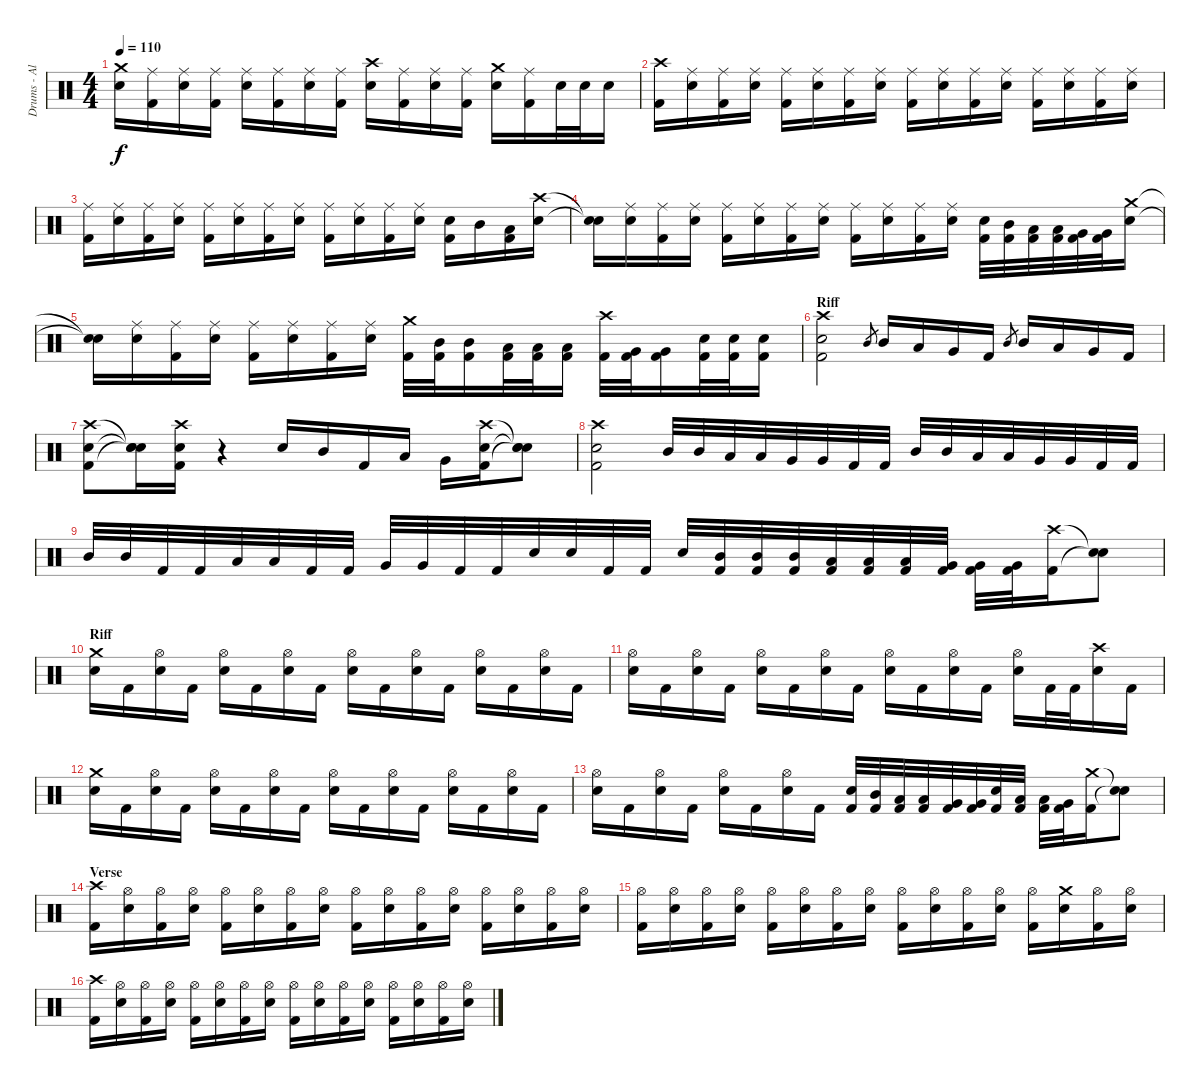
\track ("Drums - Albin" "Drums - Al") {instrument percussion}
\staff {score}
\articulation defaults
\ts (4 4)
\tempo 110
\clef neutral
\ks c
("Crash medium (hit)"{t} "Snare (hit)"{t}).16{dy f} ("Ride (middle)" "Kick (hit) 2").16 ("Ride (middle)" "Snare (hit) 2").16 ("Ride (middle)" "Kick (hit) 2").16 ("Ride (middle)" "Snare (hit) 2").16 ("Ride (middle)" "Kick (hit) 2").16 ("Ride (middle)" "Snare (hit) 2").16 ("Ride (middle)" "Kick (hit) 2").16 ("Crash high (hit)" "Snare (hit) 2").16 ("Ride (middle)" "Kick (hit) 2").16 ("Ride (middle)" "Snare (hit) 2").16 ("Ride (middle)" "Kick (hit) 2").16 ("Crash medium (hit)" "Snare (hit) 2").16 ("Ride (middle)" "Kick (hit) 2").16 "Snare (hit) 2".32 "Snare (hit) 2".32 "Snare (hit) 2".16 |
("Crash high (hit)" "Kick (hit) 2").16 ("Ride (middle)" "Snare (hit) 2").16 ("Ride (middle)" "Kick (hit) 2").16 ("Ride (middle)" "Snare (hit) 2").16 ("Ride (middle)" "Kick (hit) 2").16 ("Ride (middle)" "Snare (hit) 2").16 ("Ride (middle)" "Kick (hit) 2").16 ("Ride (middle)" "Snare (hit) 2").16 ("Ride (middle)" "Kick (hit) 2").16 ("Ride (middle)" "Snare (hit) 2").16 ("Ride (middle)" "Kick (hit) 2").16 ("Ride (middle)" "Snare (hit) 2").16 ("Ride (middle)" "Kick (hit) 2").16 ("Ride (middle)" "Snare (hit) 2").16 ("Ride (middle)" "Kick (hit) 2").16 ("Ride (middle)" "Snare (hit) 2").16 |
("Ride (middle)" "Kick (hit) 2").16 ("Ride (middle)" "Snare (hit) 2").16 ("Ride (middle)" "Kick (hit) 2").16 ("Ride (middle)" "Snare (hit) 2").16 ("Ride (middle)" "Kick (hit) 2").16 ("Ride (middle)" "Snare (hit) 2").16 ("Ride (middle)" "Kick (hit) 2").16 ("Ride (middle)" "Snare (hit) 2").16 ("Ride (middle)" "Kick (hit) 2").16 ("Ride (middle)" "Snare (hit) 2").16 ("Ride (middle)" "Kick (hit) 2").16 ("Ride (middle)" "Snare (hit) 2").16 ("Snare (hit) 2" "Kick (hit) 2").16 "Mid Tom (hit)".16 ("Low Tom (hit)" "Kick (hit) 2").16 ("Crash high (hit)" "Snare (hit) 2").16 |
("Snare (hit)"{t} "Snare (hit)"{t}).16 ("Ride (middle)" "Snare (hit) 2").16 ("Ride (middle)" "Kick (hit) 2").16 ("Ride (middle)" "Snare (hit) 2").16 ("Ride (middle)" "Kick (hit) 2").16 ("Ride (middle)" "Snare (hit) 2").16 ("Ride (middle)" "Kick (hit) 2").16 ("Ride (middle)" "Snare (hit) 2").16 ("Ride (middle)" "Kick (hit) 2").16 ("Ride (middle)" "Snare (hit) 2").16 ("Ride (middle)" "Kick (hit) 2").16 ("Ride (middle)" "Snare (hit) 2").16 ("Snare (hit) 2" "Kick (hit) 2").32 ("Mid Tom (hit)" "Kick (hit) 2").32 ("Low Tom (hit)" "Kick (hit) 2").32 ("Low Tom (hit)" "Kick (hit) 2").32 ("Very Low Tom (hit)" "Kick (hit) 2").32 ("Very Low Tom (hit)" "Kick (hit) 2").32 ("Crash medium (hit)" "Snare (hit) 2").16 |
("Snare (hit)"{t} "Snare (hit)"{t}).16 ("Ride (middle)" "Snare (hit) 2").16 ("Ride (middle)" "Kick (hit) 2").16 ("Ride (middle)" "Snare (hit) 2").16 ("Ride (middle)" "Kick (hit) 2").16 ("Ride (middle)" "Snare (hit) 2").16 ("Ride (middle)" "Kick (hit) 2").16 ("Ride (middle)" "Snare (hit) 2").16 ("Crash medium (hit)" "Kick (hit) 2").32 ("Mid Tom (hit)" "Kick (hit) 2").32 ("Mid Tom (hit)" "Kick (hit) 2").16 ("Low Tom (hit)" "Kick (hit) 2").32 ("Low Tom (hit)" "Kick (hit) 2").32 ("Low Tom (hit)" "Kick (hit) 2").16 ("Crash high (hit)" "Kick (hit) 2").32 ("Very Low Tom (hit)" "Kick (hit) 2").32 ("Very Low Tom (hit)" "Kick (hit) 2").16 ("Snare (hit) 2" "Kick (hit) 2").32 ("Snare (hit) 2" "Kick (hit) 2").32 ("Snare (hit) 2" "Kick (hit) 2").16 |
\section ("" "Riff")
("Crash high (hit)" "Snare (hit) 2" "Kick (hit) 2").2 "Mid Tom (hit)".8{gr} "Mid Tom (hit)".16 "Low Tom (hit)".16 "Very Low Tom (hit)".16 "Kick (hit) 2".16 "Mid Tom (hit)".8{gr} "Mid Tom (hit)".16 "Low Tom (hit)".16 "Very Low Tom (hit)".16 "Kick (hit) 2".16 |
("Crash high (hit)" "Snare (hit) 2" "Kick (hit) 2").8 ("Snare (hit)"{t} "Snare (hit)"{t} "Snare (hit)"{t}).16 ("Crash high (hit)" "Snare (hit) 2" "Kick (hit) 2").16 r.4 "Snare (hit) 2".16 "Mid Tom (hit)".16 "Kick (hit) 2".16 "Low Tom (hit)".16 "Very Low Tom (hit)".16 ("Crash high (hit)" "Snare (hit) 2" "Kick (hit) 2").16 ("Snare (hit)"{t} "Snare (hit)"{t} "Snare (hit)"{t}).8 |
("Crash high (hit)" "Snare (hit) 2" "Kick (hit) 2").2 "Mid Tom (hit)".32 "Mid Tom (hit)".32 "Low Tom (hit)".32 "Low Tom (hit)".32 "Very Low Tom (hit)".32 "Very Low Tom (hit)".32 "Kick (hit) 2".32 "Kick (hit) 2".32 "Mid Tom (hit)".32 "Mid Tom (hit)".32 "Low Tom (hit)".32 "Low Tom (hit)".32 "Very Low Tom (hit)".32 "Very Low Tom (hit)".32 "Kick (hit) 2".32 "Kick (hit) 2".32 |
"Mid Tom (hit)".32 "Mid Tom (hit)".32 "Kick (hit) 2".32 "Kick (hit) 2".32 "Low Tom (hit)".32 "Low Tom (hit)".32 "Kick (hit) 2".32 "Kick (hit) 2".32 "Very Low Tom (hit)".32 "Very Low Tom (hit)".32 "Kick (hit) 2".32 "Kick (hit) 2".32 "Snare (hit) 2".32 "Snare (hit) 2".32 "Kick (hit) 2".32 "Kick (hit) 2".32 "Snare (hit) 2".32 ("Mid Tom (hit)" "Kick (hit) 2").32 ("Mid Tom (hit)" "Kick (hit) 2").32 ("Mid Tom (hit)" "Kick (hit) 2").32 ("Low Tom (hit)" "Kick (hit) 2").32 ("Low Tom (hit)" "Kick (hit) 2").32 ("Low Tom (hit)" "Kick (hit) 2").32 ("Very Low Tom (hit)" "Kick (hit) 2").32 ("Very Low Tom (hit)" "Kick (hit) 2").32 ("Very Low Tom (hit)" "Kick (hit) 2").32 ("Crash high (hit)" "Kick (hit) 2").16 ("Snare (hit)"{t} "Snare (hit)"{t}).8 |
\section ("" "Riff")
("Crash medium (hit)" "Snare (hit) 2").16 "Kick (hit) 2".16 ("Hi-Hat (open)" "Snare (hit) 2").16 "Kick (hit) 2".16 ("Hi-Hat (open)" "Snare (hit) 2").16 "Kick (hit) 2".16 ("Hi-Hat (open)" "Snare (hit) 2").16 "Kick (hit) 2".16 ("Hi-Hat (open)" "Snare (hit) 2").16 "Kick (hit) 2".16 ("Hi-Hat (open)" "Snare (hit) 2").16 "Kick (hit) 2".16 ("Hi-Hat (open)" "Snare (hit) 2").16 "Kick (hit) 2".16 ("Hi-Hat (open)" "Snare (hit) 2").16 "Kick (hit) 2".16 |
("Hi-Hat (open)" "Snare (hit) 2").16 "Kick (hit) 2".16 ("Hi-Hat (open)" "Snare (hit) 2").16 "Kick (hit) 2".16 ("Hi-Hat (open)" "Snare (hit) 2").16 "Kick (hit) 2".16 ("Hi-Hat (open)" "Snare (hit) 2").16 "Kick (hit) 2".16 ("Hi-Hat (open)" "Snare (hit) 2").16 "Kick (hit) 2".16 ("Hi-Hat (open)" "Snare (hit) 2").16 "Kick (hit) 2".16 ("Hi-Hat (open)" "Snare (hit) 2").16 "Kick (hit) 2".32 "Kick (hit) 2".32 ("Crash high (hit)" "Snare (hit) 2").16 "Kick (hit) 2".16 |
("Crash medium (hit)" "Snare (hit) 2").16 "Kick (hit) 2".16 ("Hi-Hat (open)" "Snare (hit) 2").16 "Kick (hit) 2".16 ("Hi-Hat (open)" "Snare (hit) 2").16 "Kick (hit) 2".16 ("Hi-Hat (open)" "Snare (hit) 2").16 "Kick (hit) 2".16 ("Hi-Hat (open)" "Snare (hit) 2").16 "Kick (hit) 2".16 ("Hi-Hat (open)" "Snare (hit) 2").16 "Kick (hit) 2".16 ("Hi-Hat (open)" "Snare (hit) 2").16 "Kick (hit) 2".16 ("Hi-Hat (open)" "Snare (hit) 2").16 "Kick (hit) 2".16 |
("Hi-Hat (open)" "Snare (hit) 2").16 "Kick (hit) 2".16 ("Hi-Hat (open)" "Snare (hit) 2").16 "Kick (hit) 2".16 ("Hi-Hat (open)" "Snare (hit) 2").16 "Kick (hit) 2".16 ("Hi-Hat (open)" "Snare (hit) 2").16 "Kick (hit) 2".16 ("Snare (hit) 2" "Kick (hit) 2").32 ("Mid Tom (hit)" "Kick (hit) 2").32 ("Low Tom (hit)" "Kick (hit) 2").32 ("Low Tom (hit)" "Kick (hit) 2").32 ("Very Low Tom (hit)" "Kick (hit) 2").32 ("Very Low Tom (hit)" "Kick (hit) 2").32 ("Snare (hit) 2" "Kick (hit) 2").32 ("Low Tom (hit)" "Kick (hit) 2").32 ("Low Tom (hit)" "Kick (hit) 2").32 ("Very Low Tom (hit)" "Kick (hit) 2").32 ("Crash medium (hit)" "Kick (hit) 2").16 ("Snare (hit)"{t} "Snare (hit)"{t}).8 |
\section ("" "Verse")
("Crash high (hit)" "Kick (hit) 2").16 ("Hi-Hat (open)" "Snare (hit) 2").16 ("Hi-Hat (open)" "Kick (hit) 2").16 ("Hi-Hat (open)" "Snare (hit) 2").16 ("Hi-Hat (open)" "Kick (hit) 2").16 ("Hi-Hat (open)" "Snare (hit) 2").16 ("Hi-Hat (open)" "Kick (hit) 2").16 ("Hi-Hat (open)" "Snare (hit) 2").16 ("Hi-Hat (open)" "Kick (hit) 2").16 ("Hi-Hat (open)" "Snare (hit) 2").16 ("Hi-Hat (open)" "Kick (hit) 2").16 ("Hi-Hat (open)" "Snare (hit) 2").16 ("Hi-Hat (open)" "Kick (hit) 2").16 ("Hi-Hat (open)" "Snare (hit) 2").16 ("Hi-Hat (open)" "Kick (hit) 2").16 ("Hi-Hat (open)" "Snare (hit) 2").16 |
("Hi-Hat (open)" "Kick (hit) 2").16 ("Hi-Hat (open)" "Snare (hit) 2").16 ("Hi-Hat (open)" "Kick (hit) 2").16 ("Hi-Hat (open)" "Snare (hit) 2").16 ("Hi-Hat (open)" "Kick (hit) 2").16 ("Hi-Hat (open)" "Snare (hit) 2").16 ("Hi-Hat (open)" "Kick (hit) 2").16 ("Hi-Hat (open)" "Snare (hit) 2").16 ("Hi-Hat (open)" "Kick (hit) 2").16 ("Hi-Hat (open)" "Snare (hit) 2").16 ("Hi-Hat (open)" "Kick (hit) 2").16 ("Hi-Hat (open)" "Snare (hit) 2").16 ("Hi-Hat (open)" "Kick (hit) 2").16 ("Crash medium (hit)" "Snare (hit) 2").16 ("Hi-Hat (open)" "Kick (hit) 2").16 ("Hi-Hat (open)" "Snare (hit) 2").16 |
("Crash high (hit)" "Kick (hit) 2").16 ("Hi-Hat (open)" "Snare (hit) 2").16 ("Hi-Hat (open)" "Kick (hit) 2").16 ("Hi-Hat (open)" "Snare (hit) 2").16 ("Hi-Hat (open)" "Kick (hit) 2").16 ("Hi-Hat (open)" "Snare (hit) 2").16 ("Hi-Hat (open)" "Kick (hit) 2").16 ("Hi-Hat (open)" "Snare (hit) 2").16 ("Hi-Hat (open)" "Kick (hit) 2").16 ("Hi-Hat (open)" "Snare (hit) 2").16 ("Hi-Hat (open)" "Kick (hit) 2").16 ("Hi-Hat (open)" "Snare (hit) 2").16 ("Hi-Hat (open)" "Kick (hit) 2").16 ("Hi-Hat (open)" "Snare (hit) 2").16 ("Hi-Hat (open)" "Kick (hit) 2").16 ("Hi-Hat (open)" "Snare (hit) 2").16
